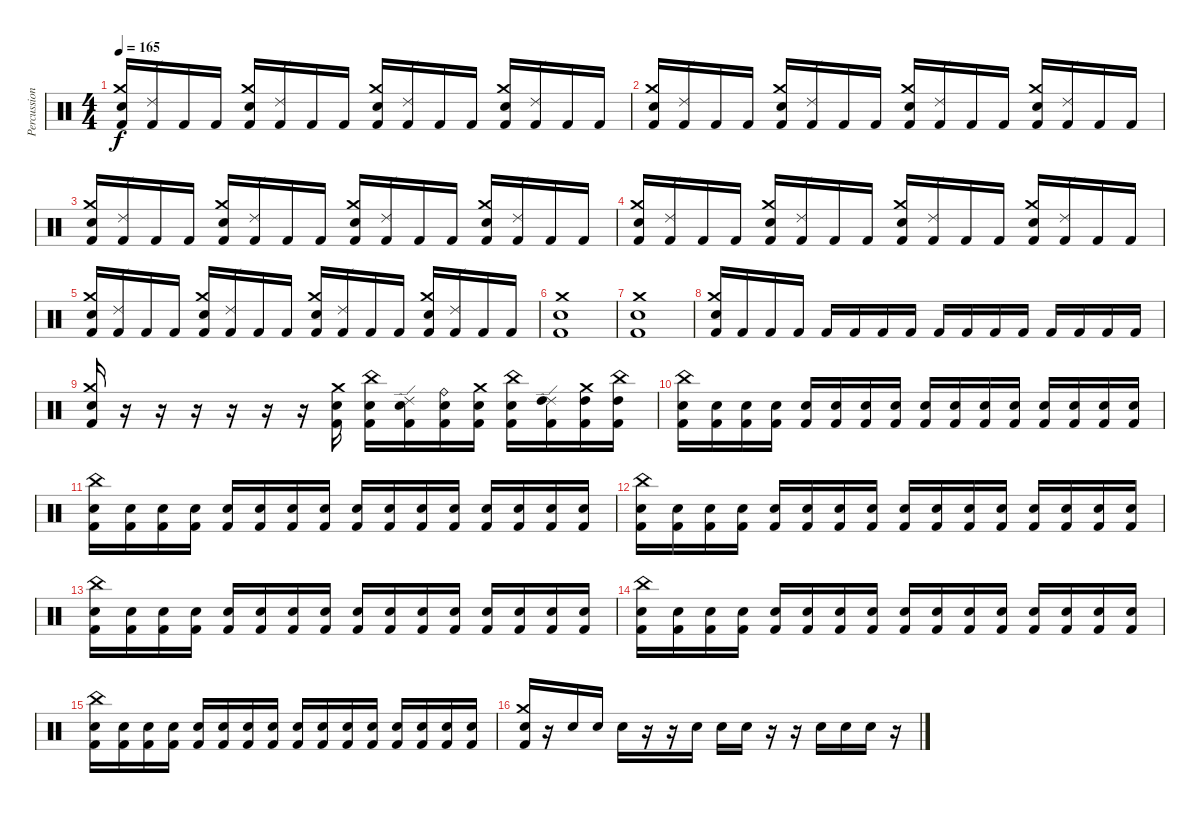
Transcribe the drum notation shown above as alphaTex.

\track ("Percussions" "Percussion") {instrument percussion}
\staff {score}
\articulation defaults
\ts (4 4)
\tempo 165
\clef neutral
\ks c
("Snare (hit) 2" "Crash medium (hit)" "Kick (hit) 2").16{dy f} ("Ride (edge) 2" "Kick (hit) 2").16 "Kick (hit) 2".16 "Kick (hit) 2".16 ("Snare (hit) 2" "Crash medium (hit)" "Kick (hit) 2").16 ("Ride (edge) 2" "Kick (hit) 2").16 "Kick (hit) 2".16 "Kick (hit) 2".16 ("Snare (hit) 2" "Crash medium (hit)" "Kick (hit) 2").16 ("Ride (edge) 2" "Kick (hit) 2").16 "Kick (hit) 2".16 "Kick (hit) 2".16 ("Snare (hit) 2" "Crash medium (hit)" "Kick (hit) 2").16 ("Ride (edge) 2" "Kick (hit) 2").16 "Kick (hit) 2".16 "Kick (hit) 2".16 |
("Snare (hit) 2" "Crash medium (hit)" "Kick (hit) 2").16 ("Ride (edge) 2" "Kick (hit) 2").16 "Kick (hit) 2".16 "Kick (hit) 2".16 ("Snare (hit) 2" "Crash medium (hit)" "Kick (hit) 2").16 ("Ride (edge) 2" "Kick (hit) 2").16 "Kick (hit) 2".16 "Kick (hit) 2".16 ("Snare (hit) 2" "Crash medium (hit)" "Kick (hit) 2").16 ("Ride (edge) 2" "Kick (hit) 2").16 "Kick (hit) 2".16 "Kick (hit) 2".16 ("Snare (hit) 2" "Crash medium (hit)" "Kick (hit) 2").16 ("Ride (edge) 2" "Kick (hit) 2").16 "Kick (hit) 2".16 "Kick (hit) 2".16 |
("Snare (hit) 2" "Crash medium (hit)" "Kick (hit) 2").16 ("Ride (edge) 2" "Kick (hit) 2").16 "Kick (hit) 2".16 "Kick (hit) 2".16 ("Snare (hit) 2" "Crash medium (hit)" "Kick (hit) 2").16 ("Ride (edge) 2" "Kick (hit) 2").16 "Kick (hit) 2".16 "Kick (hit) 2".16 ("Snare (hit) 2" "Crash medium (hit)" "Kick (hit) 2").16 ("Ride (edge) 2" "Kick (hit) 2").16 "Kick (hit) 2".16 "Kick (hit) 2".16 ("Snare (hit) 2" "Crash medium (hit)" "Kick (hit) 2").16 ("Ride (edge) 2" "Kick (hit) 2").16 "Kick (hit) 2".16 "Kick (hit) 2".16 |
("Snare (hit) 2" "Crash medium (hit)" "Kick (hit) 2").16 ("Ride (edge) 2" "Kick (hit) 2").16 "Kick (hit) 2".16 "Kick (hit) 2".16 ("Snare (hit) 2" "Crash medium (hit)" "Kick (hit) 2").16 ("Ride (edge) 2" "Kick (hit) 2").16 "Kick (hit) 2".16 "Kick (hit) 2".16 ("Snare (hit) 2" "Crash medium (hit)" "Kick (hit) 2").16 ("Ride (edge) 2" "Kick (hit) 2").16 "Kick (hit) 2".16 "Kick (hit) 2".16 ("Snare (hit) 2" "Crash medium (hit)" "Kick (hit) 2").16 ("Ride (edge) 2" "Kick (hit) 2").16 "Kick (hit) 2".16 "Kick (hit) 2".16 |
("Snare (hit) 2" "Crash medium (hit)" "Kick (hit) 2").16 ("Ride (edge) 2" "Kick (hit) 2").16 "Kick (hit) 2".16 "Kick (hit) 2".16 ("Snare (hit) 2" "Crash medium (hit)" "Kick (hit) 2").16 ("Ride (edge) 2" "Kick (hit) 2").16 "Kick (hit) 2".16 "Kick (hit) 2".16 ("Snare (hit) 2" "Crash medium (hit)" "Kick (hit) 2").16 ("Ride (edge) 2" "Kick (hit) 2").16 "Kick (hit) 2".16 "Kick (hit) 2".16 ("Snare (hit) 2" "Crash medium (hit)" "Kick (hit) 2").16 ("Ride (edge) 2" "Kick (hit) 2").16 "Kick (hit) 2".16 "Kick (hit) 2".16 |
("Crash medium (hit)" "Kick (hit) 2" "Snare (hit) 2").1 |
("Crash medium (hit)" "Kick (hit) 2" "Snare (hit) 2").1 |
("Crash medium (hit)" "Snare (hit) 2" "Kick (hit) 2").16 "Kick (hit) 2".16 "Kick (hit) 2".16 "Kick (hit) 2".16 "Kick (hit) 2".16 "Kick (hit) 2".16 "Kick (hit) 2".16 "Kick (hit) 2".16 "Kick (hit) 2".16 "Kick (hit) 2".16 "Kick (hit) 2".16 "Kick (hit) 2".16 "Kick (hit) 2".16 "Kick (hit) 2".16 "Kick (hit) 2".16 "Kick (hit) 2".16 |
("Crash medium (hit)" "Snare (hit) 2" "Kick (hit) 2").16 r.16 r.16 r.16 r.16 r.16 r.16 ("Crash medium (hit)" "Kick (hit) 2" "Electric Snare (hit)").16 ("China (hit)" "Kick (hit) 2" "Electric Snare (hit)").16 ("Ride (edge) 2" "Kick (hit) 2" "Electric Snare (hit)").16 ("Ride (bell)" "Kick (hit) 2" "Snare (hit) 2").16 ("Crash medium (hit)" "Kick (hit) 2" "Snare (hit) 2").16 ("China (hit)" "Kick (hit) 2" "Snare (hit) 2").16 ("Ride (edge) 2" "Kick (hit) 2" "High Tom (hit)").16 ("Crash medium (hit)" "Kick (hit) 2" "High Tom (hit)").16 ("China (hit)" "Kick (hit) 2" "High Tom (hit)").16 |
("China (hit)" "Electric Snare (hit)" "Kick (hit) 2").16 ("Electric Snare (hit)" "Kick (hit) 2").16 ("Electric Snare (hit)" "Kick (hit) 2").16 ("Electric Snare (hit)" "Kick (hit) 2").16 ("Electric Snare (hit)" "Kick (hit) 2").16 ("Electric Snare (hit)" "Kick (hit) 2").16 ("Electric Snare (hit)" "Kick (hit) 2").16 ("Electric Snare (hit)" "Kick (hit) 2").16 ("Electric Snare (hit)" "Kick (hit) 2").16 ("Electric Snare (hit)" "Kick (hit) 2").16 ("Electric Snare (hit)" "Kick (hit) 2").16 ("Electric Snare (hit)" "Kick (hit) 2").16 ("Electric Snare (hit)" "Kick (hit) 2").16 ("Electric Snare (hit)" "Kick (hit) 2").16 ("Electric Snare (hit)" "Kick (hit) 2").16 ("Electric Snare (hit)" "Kick (hit) 2").16 |
("China (hit)" "Electric Snare (hit)" "Kick (hit) 2").16 ("Electric Snare (hit)" "Kick (hit) 2").16 ("Electric Snare (hit)" "Kick (hit) 2").16 ("Electric Snare (hit)" "Kick (hit) 2").16 ("Electric Snare (hit)" "Kick (hit) 2").16 ("Electric Snare (hit)" "Kick (hit) 2").16 ("Electric Snare (hit)" "Kick (hit) 2").16 ("Electric Snare (hit)" "Kick (hit) 2").16 ("Electric Snare (hit)" "Kick (hit) 2").16 ("Electric Snare (hit)" "Kick (hit) 2").16 ("Electric Snare (hit)" "Kick (hit) 2").16 ("Electric Snare (hit)" "Kick (hit) 2").16 ("Electric Snare (hit)" "Kick (hit) 2").16 ("Electric Snare (hit)" "Kick (hit) 2").16 ("Electric Snare (hit)" "Kick (hit) 2").16 ("Electric Snare (hit)" "Kick (hit) 2").16 |
("China (hit)" "Electric Snare (hit)" "Kick (hit) 2").16 ("Electric Snare (hit)" "Kick (hit) 2").16 ("Electric Snare (hit)" "Kick (hit) 2").16 ("Electric Snare (hit)" "Kick (hit) 2").16 ("Electric Snare (hit)" "Kick (hit) 2").16 ("Electric Snare (hit)" "Kick (hit) 2").16 ("Electric Snare (hit)" "Kick (hit) 2").16 ("Electric Snare (hit)" "Kick (hit) 2").16 ("Electric Snare (hit)" "Kick (hit) 2").16 ("Electric Snare (hit)" "Kick (hit) 2").16 ("Electric Snare (hit)" "Kick (hit) 2").16 ("Electric Snare (hit)" "Kick (hit) 2").16 ("Electric Snare (hit)" "Kick (hit) 2").16 ("Electric Snare (hit)" "Kick (hit) 2").16 ("Electric Snare (hit)" "Kick (hit) 2").16 ("Electric Snare (hit)" "Kick (hit) 2").16 |
("China (hit)" "Electric Snare (hit)" "Kick (hit) 2").16 ("Electric Snare (hit)" "Kick (hit) 2").16 ("Electric Snare (hit)" "Kick (hit) 2").16 ("Electric Snare (hit)" "Kick (hit) 2").16 ("Electric Snare (hit)" "Kick (hit) 2").16 ("Electric Snare (hit)" "Kick (hit) 2").16 ("Electric Snare (hit)" "Kick (hit) 2").16 ("Electric Snare (hit)" "Kick (hit) 2").16 ("Electric Snare (hit)" "Kick (hit) 2").16 ("Electric Snare (hit)" "Kick (hit) 2").16 ("Electric Snare (hit)" "Kick (hit) 2").16 ("Electric Snare (hit)" "Kick (hit) 2").16 ("Electric Snare (hit)" "Kick (hit) 2").16 ("Electric Snare (hit)" "Kick (hit) 2").16 ("Electric Snare (hit)" "Kick (hit) 2").16 ("Electric Snare (hit)" "Kick (hit) 2").16 |
("China (hit)" "Electric Snare (hit)" "Kick (hit) 2").16 ("Electric Snare (hit)" "Kick (hit) 2").16 ("Electric Snare (hit)" "Kick (hit) 2").16 ("Electric Snare (hit)" "Kick (hit) 2").16 ("Electric Snare (hit)" "Kick (hit) 2").16 ("Electric Snare (hit)" "Kick (hit) 2").16 ("Electric Snare (hit)" "Kick (hit) 2").16 ("Electric Snare (hit)" "Kick (hit) 2").16 ("Electric Snare (hit)" "Kick (hit) 2").16 ("Electric Snare (hit)" "Kick (hit) 2").16 ("Electric Snare (hit)" "Kick (hit) 2").16 ("Electric Snare (hit)" "Kick (hit) 2").16 ("Electric Snare (hit)" "Kick (hit) 2").16 ("Electric Snare (hit)" "Kick (hit) 2").16 ("Electric Snare (hit)" "Kick (hit) 2").16 ("Electric Snare (hit)" "Kick (hit) 2").16 |
("China (hit)" "Electric Snare (hit)" "Kick (hit) 2").16 ("Electric Snare (hit)" "Kick (hit) 2").16 ("Electric Snare (hit)" "Kick (hit) 2").16 ("Electric Snare (hit)" "Kick (hit) 2").16 ("Electric Snare (hit)" "Kick (hit) 2").16 ("Electric Snare (hit)" "Kick (hit) 2").16 ("Electric Snare (hit)" "Kick (hit) 2").16 ("Electric Snare (hit)" "Kick (hit) 2").16 ("Electric Snare (hit)" "Kick (hit) 2").16 ("Electric Snare (hit)" "Kick (hit) 2").16 ("Electric Snare (hit)" "Kick (hit) 2").16 ("Electric Snare (hit)" "Kick (hit) 2").16 ("Electric Snare (hit)" "Kick (hit) 2").16 ("Electric Snare (hit)" "Kick (hit) 2").16 ("Electric Snare (hit)" "Kick (hit) 2").16 ("Electric Snare (hit)" "Kick (hit) 2").16 |
("Crash medium (hit)" "Snare (hit) 2" "Kick (hit) 2").16 r.16 "Snare (hit) 2".16 "Snare (hit) 2".16 "Snare (hit) 2".16 r.16 r.16 "Snare (hit) 2".16 "Snare (hit) 2".16 "Snare (hit) 2".16 r.16 r.16 "Snare (hit) 2".16 "Snare (hit) 2".16 "Snare (hit) 2".16 r.16
